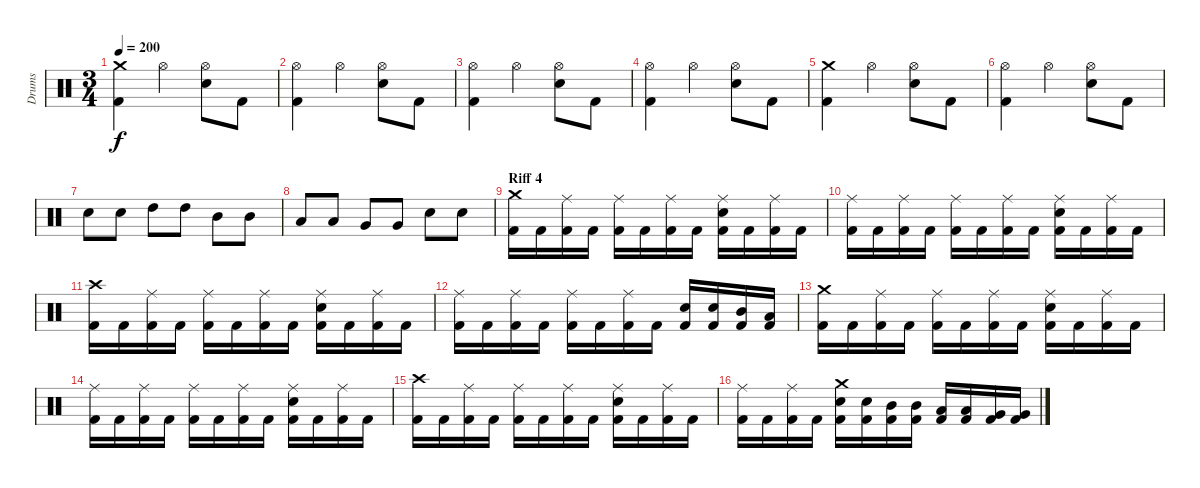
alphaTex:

\track ("Drums" "Drums") {instrument percussion}
\staff {score}
\articulation defaults
\ts (3 4)
\tempo 200
\clef neutral
\ks c
("Crash medium (hit)" "Kick (hit) 2").4{dy f} "Hi-Hat (open)".4 ("Hi-Hat (open)" "Electric Snare (hit)").8 "Kick (hit) 2".8 |
("Hi-Hat (open)" "Kick (hit) 2").4 "Hi-Hat (open)".4 ("Hi-Hat (open)" "Electric Snare (hit)").8 "Kick (hit) 2".8 |
("Hi-Hat (open)" "Kick (hit) 2").4 "Hi-Hat (open)".4 ("Hi-Hat (open)" "Electric Snare (hit)").8 "Kick (hit) 2".8 |
("Hi-Hat (open)" "Kick (hit) 2").4 "Hi-Hat (open)".4 ("Hi-Hat (open)" "Electric Snare (hit)").8 "Kick (hit) 2".8 |
("Crash medium (hit)" "Kick (hit) 2").4 "Hi-Hat (open)".4 ("Hi-Hat (open)" "Electric Snare (hit)").8 "Kick (hit) 2".8 |
("Hi-Hat (open)" "Kick (hit) 2").4 "Hi-Hat (open)".4 ("Hi-Hat (open)" "Electric Snare (hit)").8 "Kick (hit) 2".8 |
"Electric Snare (hit)".8 "Electric Snare (hit)".8 "High Tom (hit)".8 "High Tom (hit)".8 "Mid Tom (hit)".8 "Mid Tom (hit)".8 |
"Low Tom (hit)".8 "Low Tom (hit)".8 "Very Low Tom (hit)".8 "Very Low Tom (hit)".8 "Electric Snare (hit)".8 "Electric Snare (hit)".8 |
\section ("" "Riff 4")
("Crash medium (hit)" "Kick (hit) 2").16 "Kick (hit) 2".16 ("Ride (middle)" "Kick (hit) 2").16 "Kick (hit) 2".16 ("Ride (middle)" "Kick (hit) 2").16 "Kick (hit) 2".16 ("Ride (middle)" "Kick (hit) 2").16 "Kick (hit) 2".16 ("Ride (middle)" "Electric Snare (hit)" "Kick (hit) 2").16 "Kick (hit) 2".16 ("Ride (middle)" "Kick (hit) 2").16 "Kick (hit) 2".16 |
("Ride (middle)" "Kick (hit) 2").16 "Kick (hit) 2".16 ("Ride (middle)" "Kick (hit) 2").16 "Kick (hit) 2".16 ("Ride (middle)" "Kick (hit) 2").16 "Kick (hit) 2".16 ("Ride (middle)" "Kick (hit) 2").16 "Kick (hit) 2".16 ("Ride (middle)" "Electric Snare (hit)" "Kick (hit) 2").16 "Kick (hit) 2".16 ("Ride (middle)" "Kick (hit) 2").16 "Kick (hit) 2".16 |
("Crash high (hit)" "Kick (hit) 2").16 "Kick (hit) 2".16 ("Ride (middle)" "Kick (hit) 2").16 "Kick (hit) 2".16 ("Ride (middle)" "Kick (hit) 2").16 "Kick (hit) 2".16 ("Ride (middle)" "Kick (hit) 2").16 "Kick (hit) 2".16 ("Ride (middle)" "Electric Snare (hit)" "Kick (hit) 2").16 "Kick (hit) 2".16 ("Ride (middle)" "Kick (hit) 2").16 "Kick (hit) 2".16 |
("Ride (middle)" "Kick (hit) 2").16 "Kick (hit) 2".16 ("Ride (middle)" "Kick (hit) 2").16 "Kick (hit) 2".16 ("Ride (middle)" "Kick (hit) 2").16 "Kick (hit) 2".16 ("Ride (middle)" "Kick (hit) 2").16 "Kick (hit) 2".16 ("Electric Snare (hit)" "Kick (hit) 2").16 ("Electric Snare (hit)" "Kick (hit) 2").16 ("Mid Tom (hit)" "Kick (hit) 2").16 ("Low Tom (hit)" "Kick (hit) 2").16 |
("Crash medium (hit)" "Kick (hit) 2").16 "Kick (hit) 2".16 ("Ride (middle)" "Kick (hit) 2").16 "Kick (hit) 2".16 ("Ride (middle)" "Kick (hit) 2").16 "Kick (hit) 2".16 ("Ride (middle)" "Kick (hit) 2").16 "Kick (hit) 2".16 ("Ride (middle)" "Electric Snare (hit)" "Kick (hit) 2").16 "Kick (hit) 2".16 ("Ride (middle)" "Kick (hit) 2").16 "Kick (hit) 2".16 |
("Ride (middle)" "Kick (hit) 2").16 "Kick (hit) 2".16 ("Ride (middle)" "Kick (hit) 2").16 "Kick (hit) 2".16 ("Ride (middle)" "Kick (hit) 2").16 "Kick (hit) 2".16 ("Ride (middle)" "Kick (hit) 2").16 "Kick (hit) 2".16 ("Ride (middle)" "Electric Snare (hit)" "Kick (hit) 2").16 "Kick (hit) 2".16 ("Ride (middle)" "Kick (hit) 2").16 "Kick (hit) 2".16 |
("Crash high (hit)" "Kick (hit) 2").16 "Kick (hit) 2".16 ("Ride (middle)" "Kick (hit) 2").16 "Kick (hit) 2".16 ("Ride (middle)" "Kick (hit) 2").16 "Kick (hit) 2".16 ("Ride (middle)" "Kick (hit) 2").16 "Kick (hit) 2".16 ("Ride (middle)" "Electric Snare (hit)" "Kick (hit) 2").16 "Kick (hit) 2".16 ("Ride (middle)" "Kick (hit) 2").16 "Kick (hit) 2".16 |
("Ride (middle)" "Kick (hit) 2").16 "Kick (hit) 2".16 ("Ride (middle)" "Kick (hit) 2").16 "Kick (hit) 2".16 ("Crash medium (hit)" "Electric Snare (hit)" "Kick (hit) 2").16 ("Electric Snare (hit)" "Kick (hit) 2").16 ("Mid Tom (hit)" "Kick (hit) 2").16 ("Mid Tom (hit)" "Kick (hit) 2").16 ("Low Tom (hit)" "Kick (hit) 2").16 ("Low Tom (hit)" "Kick (hit) 2").16 ("Very Low Tom (hit)" "Kick (hit) 2").16 ("Very Low Tom (hit)" "Kick (hit) 2").16
